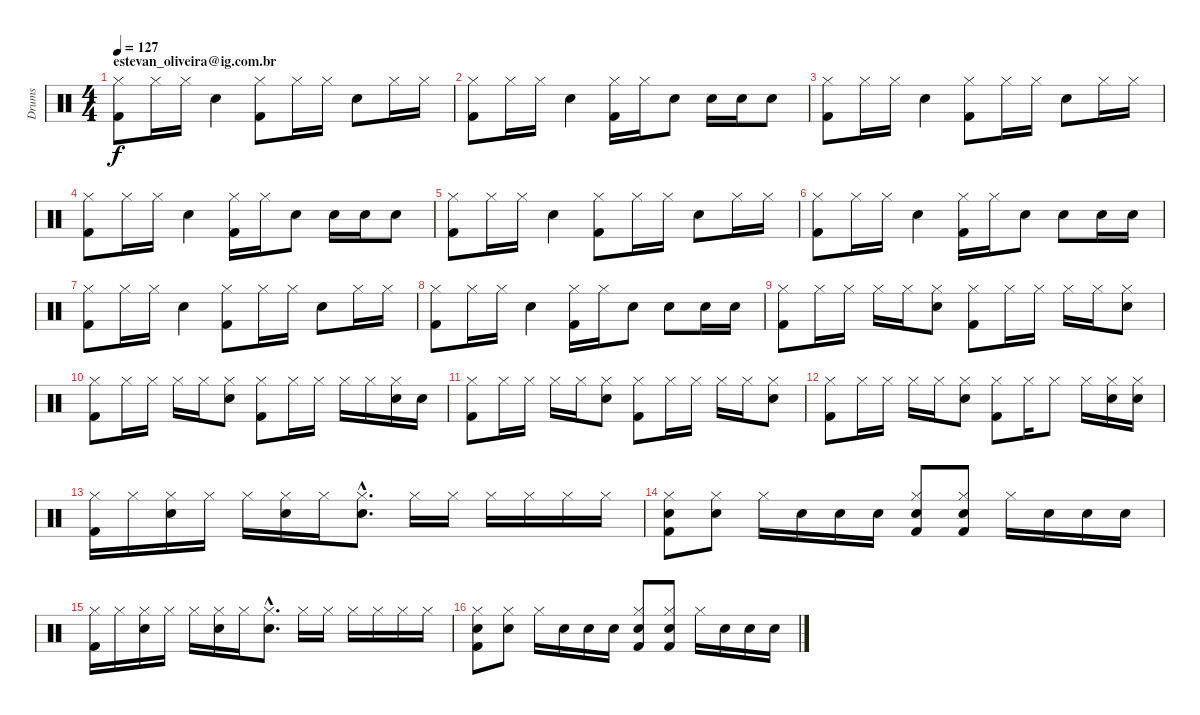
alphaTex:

\track ("Drums" "Drums") {instrument percussion}
\staff {score}
\articulation defaults
\ts (4 4)
\section ("" "estevan_oliveira@ig.com.br")
\tempo 127
\clef neutral
\ks c
("Kick (hit) 2" "Hi-Hat (closed)").8{dy f} "Hi-Hat (closed)".16 "Hi-Hat (closed)".16 "Electric Snare (hit)".4 ("Kick (hit) 2" "Hi-Hat (closed)").8 "Hi-Hat (closed)".16 "Hi-Hat (closed)".16 "Electric Snare (hit)".8 "Hi-Hat (closed)".16 "Hi-Hat (closed)".16 |
("Kick (hit) 2" "Hi-Hat (closed)").8 "Hi-Hat (closed)".16 "Hi-Hat (closed)".16 "Electric Snare (hit)".4 ("Kick (hit) 2" "Hi-Hat (closed)").16 "Hi-Hat (closed)".16 "Electric Snare (hit)".8 "Electric Snare (hit)".16 "Electric Snare (hit)".16 "Electric Snare (hit)".8 |
("Kick (hit) 2" "Hi-Hat (closed)").8 "Hi-Hat (closed)".16 "Hi-Hat (closed)".16 "Electric Snare (hit)".4 ("Kick (hit) 2" "Hi-Hat (closed)").8 "Hi-Hat (closed)".16 "Hi-Hat (closed)".16 "Electric Snare (hit)".8 "Hi-Hat (closed)".16 "Hi-Hat (closed)".16 |
("Kick (hit) 2" "Hi-Hat (closed)").8 "Hi-Hat (closed)".16 "Hi-Hat (closed)".16 "Electric Snare (hit)".4 ("Kick (hit) 2" "Hi-Hat (closed)").16 "Hi-Hat (closed)".16 "Electric Snare (hit)".8 "Electric Snare (hit)".16 "Electric Snare (hit)".16 "Electric Snare (hit)".8 |
("Kick (hit) 2" "Hi-Hat (closed)").8 "Hi-Hat (closed)".16 "Hi-Hat (closed)".16 "Electric Snare (hit)".4 ("Kick (hit) 2" "Hi-Hat (closed)").8 "Hi-Hat (closed)".16 "Hi-Hat (closed)".16 "Electric Snare (hit)".8 "Hi-Hat (closed)".16 "Hi-Hat (closed)".16 |
("Kick (hit) 2" "Hi-Hat (closed)").8 "Hi-Hat (closed)".16 "Hi-Hat (closed)".16 "Electric Snare (hit)".4 ("Kick (hit) 2" "Hi-Hat (closed)").16 "Hi-Hat (closed)".16 "Electric Snare (hit)".8 "Electric Snare (hit)".8 "Electric Snare (hit)".16 "Electric Snare (hit)".16 |
("Kick (hit) 2" "Hi-Hat (closed)").8 "Hi-Hat (closed)".16 "Hi-Hat (closed)".16 "Electric Snare (hit)".4 ("Kick (hit) 2" "Hi-Hat (closed)").8 "Hi-Hat (closed)".16 "Hi-Hat (closed)".16 "Electric Snare (hit)".8 "Hi-Hat (closed)".16 "Hi-Hat (closed)".16 |
("Kick (hit) 2" "Hi-Hat (closed)").8 "Hi-Hat (closed)".16 "Hi-Hat (closed)".16 "Electric Snare (hit)".4 ("Kick (hit) 2" "Hi-Hat (closed)").16 "Hi-Hat (closed)".16 "Electric Snare (hit)".8 "Electric Snare (hit)".8 "Electric Snare (hit)".16 "Electric Snare (hit)".16 |
("Kick (hit) 2" "Hi-Hat (closed)").8 "Hi-Hat (closed)".16 "Hi-Hat (closed)".16 "Hi-Hat (closed)".16 "Hi-Hat (closed)".16 ("Electric Snare (hit)" "Hi-Hat (closed)").8 ("Kick (hit) 2" "Hi-Hat (closed)").8 "Hi-Hat (closed)".16 "Hi-Hat (closed)".16 "Hi-Hat (closed)".16 "Hi-Hat (closed)".16 ("Electric Snare (hit)" "Hi-Hat (closed)").8 |
("Kick (hit) 2" "Hi-Hat (closed)").8 "Hi-Hat (closed)".16 "Hi-Hat (closed)".16 "Hi-Hat (closed)".16 "Hi-Hat (closed)".16 ("Electric Snare (hit)" "Hi-Hat (closed)").8 ("Kick (hit) 2" "Hi-Hat (closed)").8 "Hi-Hat (closed)".16 "Hi-Hat (closed)".16 "Hi-Hat (closed)".16 "Hi-Hat (closed)".16 ("Electric Snare (hit)" "Hi-Hat (closed)").16 "Electric Snare (hit)".16 |
("Kick (hit) 2" "Hi-Hat (closed)").8 "Hi-Hat (closed)".16 "Hi-Hat (closed)".16 "Hi-Hat (closed)".16 "Hi-Hat (closed)".16 ("Electric Snare (hit)" "Hi-Hat (closed)").8 ("Kick (hit) 2" "Hi-Hat (closed)").8 "Hi-Hat (closed)".16 "Hi-Hat (closed)".16 "Hi-Hat (closed)".16 "Hi-Hat (closed)".16 ("Electric Snare (hit)" "Hi-Hat (closed)").8 |
("Kick (hit) 2" "Hi-Hat (closed)").8 "Hi-Hat (closed)".16 "Hi-Hat (closed)".16 "Hi-Hat (closed)".16 "Hi-Hat (closed)".16 ("Electric Snare (hit)" "Hi-Hat (closed)").8 ("Kick (hit) 2" "Hi-Hat (closed)").8 "Hi-Hat (closed)".16 "Hi-Hat (closed)".8 "Hi-Hat (closed)".16 ("Electric Snare (hit)" "Hi-Hat (closed)").16 ("Electric Snare (hit)" "Hi-Hat (closed)").16 |
("Kick (hit) 2" "Hi-Hat (closed)").16 "Hi-Hat (closed)".16 ("Electric Snare (hit)" "Hi-Hat (closed)").16 "Hi-Hat (closed)".16 "Hi-Hat (closed)".16 ("Electric Snare (hit)" "Hi-Hat (closed)").16 "Hi-Hat (closed)".16 ("Electric Snare (hit)"{hac} "Hi-Hat (closed)"{hac}).8{d} "Hi-Hat (closed)".16 "Hi-Hat (closed)".16 "Hi-Hat (closed)".16 "Hi-Hat (closed)".16 "Hi-Hat (closed)".16 "Hi-Hat (closed)".16 |
("Kick (hit) 2" "Electric Snare (hit)" "Hi-Hat (closed)").8 ("Electric Snare (hit)" "Hi-Hat (closed)").8 "Hi-Hat (closed)".16 "Electric Snare (hit)".16 "Electric Snare (hit)".16 "Electric Snare (hit)".16 ("Kick (hit) 2" "Electric Snare (hit)" "Hi-Hat (closed)").8 ("Kick (hit) 2" "Electric Snare (hit)" "Hi-Hat (closed)").8 "Hi-Hat (closed)".16 "Electric Snare (hit)".16 "Electric Snare (hit)".16 "Electric Snare (hit)".16 |
("Kick (hit) 2" "Hi-Hat (closed)").16 "Hi-Hat (closed)".16 ("Electric Snare (hit)" "Hi-Hat (closed)").16 "Hi-Hat (closed)".16 "Hi-Hat (closed)".16 ("Electric Snare (hit)" "Hi-Hat (closed)").16 "Hi-Hat (closed)".16 ("Electric Snare (hit)"{hac} "Hi-Hat (closed)"{hac}).8{d} "Hi-Hat (closed)".16 "Hi-Hat (closed)".16 "Hi-Hat (closed)".16 "Hi-Hat (closed)".16 "Hi-Hat (closed)".16 "Hi-Hat (closed)".16 |
("Kick (hit) 2" "Electric Snare (hit)" "Hi-Hat (closed)").8 ("Electric Snare (hit)" "Hi-Hat (closed)").8 "Hi-Hat (closed)".16 "Electric Snare (hit)".16 "Electric Snare (hit)".16 "Electric Snare (hit)".16 ("Kick (hit) 2" "Electric Snare (hit)" "Hi-Hat (closed)").8 ("Kick (hit) 2" "Electric Snare (hit)" "Hi-Hat (closed)").8 "Hi-Hat (closed)".16 "Electric Snare (hit)".16 "Electric Snare (hit)".16 "Electric Snare (hit)".16
